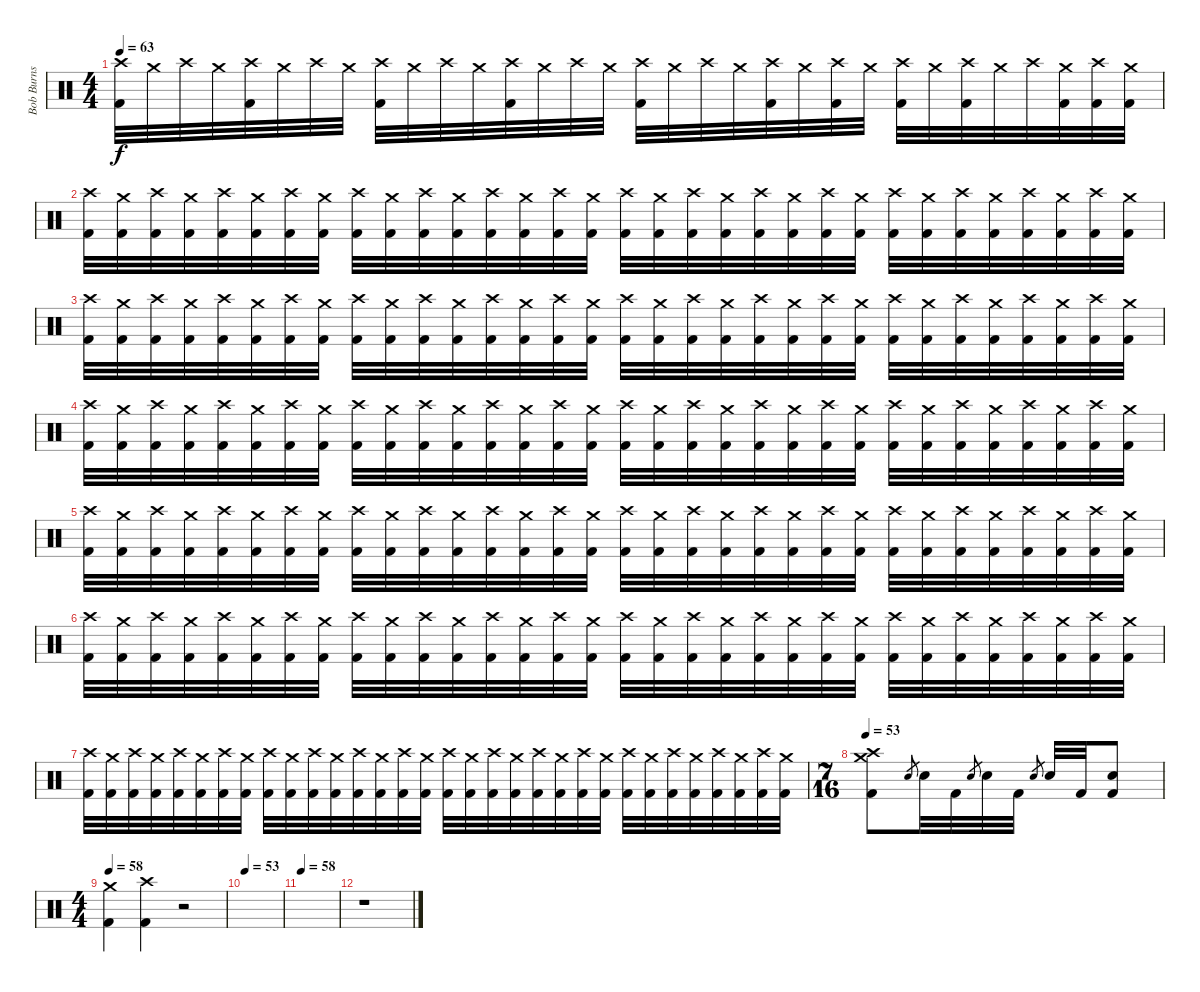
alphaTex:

\track ("Bob Burns (drums and percussion)" "Bob Burns ") {instrument percussion}
\staff {score}
\articulation defaults
\ts (4 4)
\tempo 63
\clef neutral
\ks c
("Crash high (hit)" "Kick (hit) 2").32{dy f} "Crash medium (hit)".32 "Crash high (hit)".32 "Crash medium (hit)".32 ("Crash high (hit)" "Kick (hit) 2").32 "Crash medium (hit)".32 "Crash high (hit)".32 "Crash medium (hit)".32 ("Crash high (hit)" "Kick (hit) 2").32 "Crash medium (hit)".32 "Crash high (hit)".32 "Crash medium (hit)".32 ("Crash high (hit)" "Kick (hit) 2").32 "Crash medium (hit)".32 "Crash high (hit)".32 "Crash medium (hit)".32 ("Crash high (hit)" "Kick (hit) 2").32 "Crash medium (hit)".32 "Crash high (hit)".32 "Crash medium (hit)".32 ("Crash high (hit)" "Kick (hit) 2").32 "Crash medium (hit)".32 ("Crash high (hit)" "Kick (hit) 2").32 "Crash medium (hit)".32 ("Crash high (hit)" "Kick (hit) 2").32 "Crash medium (hit)".32 ("Crash high (hit)" "Kick (hit) 2").32 "Crash medium (hit)".32 "Crash high (hit)".32 ("Crash medium (hit)" "Kick (hit) 2").32 ("Crash high (hit)" "Kick (hit) 2").32 ("Crash medium (hit)" "Kick (hit) 2").32 |
("Crash high (hit)" "Kick (hit) 2").32 ("Crash medium (hit)" "Kick (hit) 2").32 ("Crash high (hit)" "Kick (hit) 2").32 ("Crash medium (hit)" "Kick (hit) 2").32 ("Crash high (hit)" "Kick (hit) 2").32 ("Crash medium (hit)" "Kick (hit) 2").32 ("Crash high (hit)" "Kick (hit) 2").32 ("Crash medium (hit)" "Kick (hit) 2").32 ("Crash high (hit)" "Kick (hit) 2").32 ("Crash medium (hit)" "Kick (hit) 2").32 ("Crash high (hit)" "Kick (hit) 2").32 ("Crash medium (hit)" "Kick (hit) 2").32 ("Crash high (hit)" "Kick (hit) 2").32 ("Crash medium (hit)" "Kick (hit) 2").32 ("Crash high (hit)" "Kick (hit) 2").32 ("Crash medium (hit)" "Kick (hit) 2").32 ("Crash high (hit)" "Kick (hit) 2").32 ("Crash medium (hit)" "Kick (hit) 2").32 ("Crash high (hit)" "Kick (hit) 2").32 ("Crash medium (hit)" "Kick (hit) 2").32 ("Crash high (hit)" "Kick (hit) 2").32 ("Crash medium (hit)" "Kick (hit) 2").32 ("Crash high (hit)" "Kick (hit) 2").32 ("Crash medium (hit)" "Kick (hit) 2").32 ("Crash high (hit)" "Kick (hit) 2").32 ("Crash medium (hit)" "Kick (hit) 2").32 ("Crash high (hit)" "Kick (hit) 2").32 ("Crash medium (hit)" "Kick (hit) 2").32 ("Crash high (hit)" "Kick (hit) 2").32 ("Crash medium (hit)" "Kick (hit) 2").32 ("Crash high (hit)" "Kick (hit) 2").32 ("Crash medium (hit)" "Kick (hit) 2").32 |
("Crash high (hit)" "Kick (hit) 2").32 ("Crash medium (hit)" "Kick (hit) 2").32 ("Crash high (hit)" "Kick (hit) 2").32 ("Crash medium (hit)" "Kick (hit) 2").32 ("Crash high (hit)" "Kick (hit) 2").32 ("Crash medium (hit)" "Kick (hit) 2").32 ("Crash high (hit)" "Kick (hit) 2").32 ("Crash medium (hit)" "Kick (hit) 2").32 ("Crash high (hit)" "Kick (hit) 2").32 ("Crash medium (hit)" "Kick (hit) 2").32 ("Crash high (hit)" "Kick (hit) 2").32 ("Crash medium (hit)" "Kick (hit) 2").32 ("Crash high (hit)" "Kick (hit) 2").32 ("Crash medium (hit)" "Kick (hit) 2").32 ("Crash high (hit)" "Kick (hit) 2").32 ("Crash medium (hit)" "Kick (hit) 2").32 ("Crash high (hit)" "Kick (hit) 2").32 ("Crash medium (hit)" "Kick (hit) 2").32 ("Crash high (hit)" "Kick (hit) 2").32 ("Crash medium (hit)" "Kick (hit) 2").32 ("Crash high (hit)" "Kick (hit) 2").32 ("Crash medium (hit)" "Kick (hit) 2").32 ("Crash high (hit)" "Kick (hit) 2").32 ("Crash medium (hit)" "Kick (hit) 2").32 ("Crash high (hit)" "Kick (hit) 2").32 ("Crash medium (hit)" "Kick (hit) 2").32 ("Crash high (hit)" "Kick (hit) 2").32 ("Crash medium (hit)" "Kick (hit) 2").32 ("Crash high (hit)" "Kick (hit) 2").32 ("Crash medium (hit)" "Kick (hit) 2").32 ("Crash high (hit)" "Kick (hit) 2").32 ("Crash medium (hit)" "Kick (hit) 2").32 |
("Crash high (hit)" "Kick (hit) 2").32 ("Crash medium (hit)" "Kick (hit) 2").32 ("Crash high (hit)" "Kick (hit) 2").32 ("Crash medium (hit)" "Kick (hit) 2").32 ("Crash high (hit)" "Kick (hit) 2").32 ("Crash medium (hit)" "Kick (hit) 2").32 ("Crash high (hit)" "Kick (hit) 2").32 ("Crash medium (hit)" "Kick (hit) 2").32 ("Crash high (hit)" "Kick (hit) 2").32 ("Crash medium (hit)" "Kick (hit) 2").32 ("Crash high (hit)" "Kick (hit) 2").32 ("Crash medium (hit)" "Kick (hit) 2").32 ("Crash high (hit)" "Kick (hit) 2").32 ("Crash medium (hit)" "Kick (hit) 2").32 ("Crash high (hit)" "Kick (hit) 2").32 ("Crash medium (hit)" "Kick (hit) 2").32 ("Crash high (hit)" "Kick (hit) 2").32 ("Crash medium (hit)" "Kick (hit) 2").32 ("Crash high (hit)" "Kick (hit) 2").32 ("Crash medium (hit)" "Kick (hit) 2").32 ("Crash high (hit)" "Kick (hit) 2").32 ("Crash medium (hit)" "Kick (hit) 2").32 ("Crash high (hit)" "Kick (hit) 2").32 ("Crash medium (hit)" "Kick (hit) 2").32 ("Crash high (hit)" "Kick (hit) 2").32 ("Crash medium (hit)" "Kick (hit) 2").32 ("Crash high (hit)" "Kick (hit) 2").32 ("Crash medium (hit)" "Kick (hit) 2").32 ("Crash high (hit)" "Kick (hit) 2").32 ("Crash medium (hit)" "Kick (hit) 2").32 ("Crash high (hit)" "Kick (hit) 2").32 ("Crash medium (hit)" "Kick (hit) 2").32 |
("Crash high (hit)" "Kick (hit) 2").32 ("Crash medium (hit)" "Kick (hit) 2").32 ("Crash high (hit)" "Kick (hit) 2").32 ("Crash medium (hit)" "Kick (hit) 2").32 ("Crash high (hit)" "Kick (hit) 2").32 ("Crash medium (hit)" "Kick (hit) 2").32 ("Crash high (hit)" "Kick (hit) 2").32 ("Crash medium (hit)" "Kick (hit) 2").32 ("Crash high (hit)" "Kick (hit) 2").32 ("Crash medium (hit)" "Kick (hit) 2").32 ("Crash high (hit)" "Kick (hit) 2").32 ("Crash medium (hit)" "Kick (hit) 2").32 ("Crash high (hit)" "Kick (hit) 2").32 ("Crash medium (hit)" "Kick (hit) 2").32 ("Crash high (hit)" "Kick (hit) 2").32 ("Crash medium (hit)" "Kick (hit) 2").32 ("Crash high (hit)" "Kick (hit) 2").32 ("Crash medium (hit)" "Kick (hit) 2").32 ("Crash high (hit)" "Kick (hit) 2").32 ("Crash medium (hit)" "Kick (hit) 2").32 ("Crash high (hit)" "Kick (hit) 2").32 ("Crash medium (hit)" "Kick (hit) 2").32 ("Crash high (hit)" "Kick (hit) 2").32 ("Crash medium (hit)" "Kick (hit) 2").32 ("Crash high (hit)" "Kick (hit) 2").32 ("Crash medium (hit)" "Kick (hit) 2").32 ("Crash high (hit)" "Kick (hit) 2").32 ("Crash medium (hit)" "Kick (hit) 2").32 ("Crash high (hit)" "Kick (hit) 2").32 ("Crash medium (hit)" "Kick (hit) 2").32 ("Crash high (hit)" "Kick (hit) 2").32 ("Crash medium (hit)" "Kick (hit) 2").32 |
("Crash high (hit)" "Kick (hit) 2").32 ("Crash medium (hit)" "Kick (hit) 2").32 ("Crash high (hit)" "Kick (hit) 2").32 ("Crash medium (hit)" "Kick (hit) 2").32 ("Crash high (hit)" "Kick (hit) 2").32 ("Crash medium (hit)" "Kick (hit) 2").32 ("Crash high (hit)" "Kick (hit) 2").32 ("Crash medium (hit)" "Kick (hit) 2").32 ("Crash high (hit)" "Kick (hit) 2").32 ("Crash medium (hit)" "Kick (hit) 2").32 ("Crash high (hit)" "Kick (hit) 2").32 ("Crash medium (hit)" "Kick (hit) 2").32 ("Crash high (hit)" "Kick (hit) 2").32 ("Crash medium (hit)" "Kick (hit) 2").32 ("Crash high (hit)" "Kick (hit) 2").32 ("Crash medium (hit)" "Kick (hit) 2").32 ("Crash high (hit)" "Kick (hit) 2").32 ("Crash medium (hit)" "Kick (hit) 2").32 ("Crash high (hit)" "Kick (hit) 2").32 ("Crash medium (hit)" "Kick (hit) 2").32 ("Crash high (hit)" "Kick (hit) 2").32 ("Crash medium (hit)" "Kick (hit) 2").32 ("Crash high (hit)" "Kick (hit) 2").32 ("Crash medium (hit)" "Kick (hit) 2").32 ("Crash high (hit)" "Kick (hit) 2").32 ("Crash medium (hit)" "Kick (hit) 2").32 ("Crash high (hit)" "Kick (hit) 2").32 ("Crash medium (hit)" "Kick (hit) 2").32 ("Crash high (hit)" "Kick (hit) 2").32 ("Crash medium (hit)" "Kick (hit) 2").32 ("Crash high (hit)" "Kick (hit) 2").32 ("Crash medium (hit)" "Kick (hit) 2").32 |
("Crash high (hit)" "Kick (hit) 2").32 ("Crash medium (hit)" "Kick (hit) 2").32 ("Crash high (hit)" "Kick (hit) 2").32 ("Crash medium (hit)" "Kick (hit) 2").32 ("Crash high (hit)" "Kick (hit) 2").32 ("Crash medium (hit)" "Kick (hit) 2").32 ("Crash high (hit)" "Kick (hit) 2").32 ("Crash medium (hit)" "Kick (hit) 2").32 ("Crash high (hit)" "Kick (hit) 2").32 ("Crash medium (hit)" "Kick (hit) 2").32 ("Crash high (hit)" "Kick (hit) 2").32 ("Crash medium (hit)" "Kick (hit) 2").32 ("Crash high (hit)" "Kick (hit) 2").32 ("Crash medium (hit)" "Kick (hit) 2").32 ("Crash high (hit)" "Kick (hit) 2").32 ("Crash medium (hit)" "Kick (hit) 2").32 ("Crash high (hit)" "Kick (hit) 2").32 ("Crash medium (hit)" "Kick (hit) 2").32 ("Crash high (hit)" "Kick (hit) 2").32 ("Crash medium (hit)" "Kick (hit) 2").32 ("Crash high (hit)" "Kick (hit) 2").32 ("Crash medium (hit)" "Kick (hit) 2").32 ("Crash high (hit)" "Kick (hit) 2").32 ("Crash medium (hit)" "Kick (hit) 2").32 ("Crash high (hit)" "Kick (hit) 2").32 ("Crash medium (hit)" "Kick (hit) 2").32 ("Crash high (hit)" "Kick (hit) 2").32 ("Crash medium (hit)" "Kick (hit) 2").32 ("Crash high (hit)" "Kick (hit) 2").32 ("Crash medium (hit)" "Kick (hit) 2").32 ("Crash high (hit)" "Kick (hit) 2").32 ("Crash medium (hit)" "Kick (hit) 2").32 |
\ts (7 16)
\tempo 53
("Crash medium (hit)" "Crash high (hit)" "Kick (hit) 2").8 "Electric Snare (hit)".8{gr} "Electric Snare (hit)".32 "Kick (hit) 2".32 "Electric Snare (hit)".8{gr} "Electric Snare (hit)".32 "Kick (hit) 2".32 "Electric Snare (hit)".8{gr} "Electric Snare (hit)".32 "Kick (hit) 2".32 ("Electric Snare (hit)" "Kick (hit) 2").8 |
\ts (4 4)
\tempo 58
("Crash medium (hit)" "Kick (hit) 2").4 ("Crash high (hit)" "Kick (hit) 2").4 r.2 |
\tempo 53
|
\tempo 58
|
r.1
